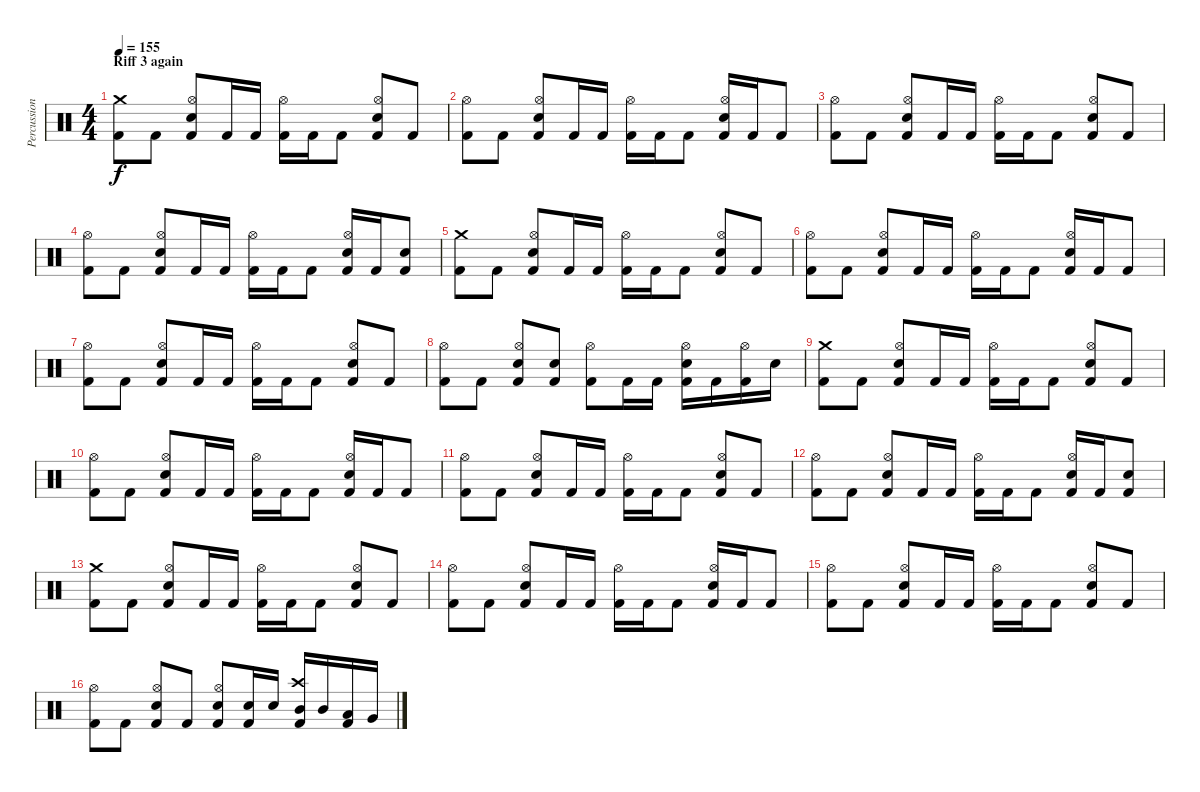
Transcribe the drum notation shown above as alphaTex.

\track ("Percussion" "Percussion") {instrument percussion}
\staff {score}
\articulation defaults
\ts (4 4)
\section ("" "Riff 3 again")
\tempo 155
\clef neutral
\ks c
("Crash medium (hit)" "Kick (hit) 2").8{dy f} "Kick (hit) 2".8 ("Kick (hit) 2" "Hi-Hat (open)" "Snare (hit) 2").8 "Kick (hit) 2".16 "Kick (hit) 2".16 ("Hi-Hat (open)" "Kick (hit) 2").16 "Kick (hit) 2".16 "Kick (hit) 2".8 ("Kick (hit) 2" "Hi-Hat (open)" "Snare (hit) 2").8 "Kick (hit) 2".8 |
("Hi-Hat (open)" "Kick (hit) 2").8 "Kick (hit) 2".8 ("Kick (hit) 2" "Hi-Hat (open)" "Snare (hit) 2").8 "Kick (hit) 2".16 "Kick (hit) 2".16 ("Hi-Hat (open)" "Kick (hit) 2").16 "Kick (hit) 2".16 "Kick (hit) 2".8 ("Kick (hit) 2" "Hi-Hat (open)" "Snare (hit) 2").16 "Kick (hit) 2".16 "Kick (hit) 2".8 |
("Hi-Hat (open)" "Kick (hit) 2").8 "Kick (hit) 2".8 ("Kick (hit) 2" "Hi-Hat (open)" "Snare (hit) 2").8 "Kick (hit) 2".16 "Kick (hit) 2".16 ("Hi-Hat (open)" "Kick (hit) 2").16 "Kick (hit) 2".16 "Kick (hit) 2".8 ("Kick (hit) 2" "Hi-Hat (open)" "Snare (hit) 2").8 "Kick (hit) 2".8 |
("Hi-Hat (open)" "Kick (hit) 2").8 "Kick (hit) 2".8 ("Kick (hit) 2" "Hi-Hat (open)" "Snare (hit) 2").8 "Kick (hit) 2".16 "Kick (hit) 2".16 ("Hi-Hat (open)" "Kick (hit) 2").16 "Kick (hit) 2".16 "Kick (hit) 2".8 ("Kick (hit) 2" "Hi-Hat (open)" "Snare (hit) 2").16 "Kick (hit) 2".16 ("Kick (hit) 2" "Snare (hit) 2").8 |
("Crash medium (hit)" "Kick (hit) 2").8 "Kick (hit) 2".8 ("Kick (hit) 2" "Hi-Hat (open)" "Snare (hit) 2").8 "Kick (hit) 2".16 "Kick (hit) 2".16 ("Hi-Hat (open)" "Kick (hit) 2").16 "Kick (hit) 2".16 "Kick (hit) 2".8 ("Kick (hit) 2" "Hi-Hat (open)" "Snare (hit) 2").8 "Kick (hit) 2".8 |
("Hi-Hat (open)" "Kick (hit) 2").8 "Kick (hit) 2".8 ("Kick (hit) 2" "Hi-Hat (open)" "Snare (hit) 2").8 "Kick (hit) 2".16 "Kick (hit) 2".16 ("Hi-Hat (open)" "Kick (hit) 2").16 "Kick (hit) 2".16 "Kick (hit) 2".8 ("Kick (hit) 2" "Hi-Hat (open)" "Snare (hit) 2").16 "Kick (hit) 2".16 "Kick (hit) 2".8 |
("Hi-Hat (open)" "Kick (hit) 2").8 "Kick (hit) 2".8 ("Kick (hit) 2" "Hi-Hat (open)" "Snare (hit) 2").8 "Kick (hit) 2".16 "Kick (hit) 2".16 ("Hi-Hat (open)" "Kick (hit) 2").16 "Kick (hit) 2".16 "Kick (hit) 2".8 ("Kick (hit) 2" "Hi-Hat (open)" "Snare (hit) 2").8 "Kick (hit) 2".8 |
("Hi-Hat (open)" "Kick (hit) 2").8 "Kick (hit) 2".8 ("Kick (hit) 2" "Hi-Hat (open)" "Snare (hit) 2").8 ("Kick (hit) 2" "Snare (hit) 2").8 ("Hi-Hat (open)" "Kick (hit) 2").8 "Kick (hit) 2".16 "Kick (hit) 2".16 ("Kick (hit) 2" "Hi-Hat (open)" "Snare (hit) 2").16 "Kick (hit) 2".16 ("Hi-Hat (open)" "Kick (hit) 2").16 "Snare (hit) 2".16 |
("Crash medium (hit)" "Kick (hit) 2").8 "Kick (hit) 2".8 ("Kick (hit) 2" "Hi-Hat (open)" "Snare (hit) 2").8 "Kick (hit) 2".16 "Kick (hit) 2".16 ("Hi-Hat (open)" "Kick (hit) 2").16 "Kick (hit) 2".16 "Kick (hit) 2".8 ("Kick (hit) 2" "Hi-Hat (open)" "Snare (hit) 2").8 "Kick (hit) 2".8 |
("Hi-Hat (open)" "Kick (hit) 2").8 "Kick (hit) 2".8 ("Kick (hit) 2" "Hi-Hat (open)" "Snare (hit) 2").8 "Kick (hit) 2".16 "Kick (hit) 2".16 ("Hi-Hat (open)" "Kick (hit) 2").16 "Kick (hit) 2".16 "Kick (hit) 2".8 ("Kick (hit) 2" "Hi-Hat (open)" "Snare (hit) 2").16 "Kick (hit) 2".16 "Kick (hit) 2".8 |
("Hi-Hat (open)" "Kick (hit) 2").8 "Kick (hit) 2".8 ("Kick (hit) 2" "Hi-Hat (open)" "Snare (hit) 2").8 "Kick (hit) 2".16 "Kick (hit) 2".16 ("Hi-Hat (open)" "Kick (hit) 2").16 "Kick (hit) 2".16 "Kick (hit) 2".8 ("Kick (hit) 2" "Hi-Hat (open)" "Snare (hit) 2").8 "Kick (hit) 2".8 |
("Hi-Hat (open)" "Kick (hit) 2").8 "Kick (hit) 2".8 ("Kick (hit) 2" "Hi-Hat (open)" "Snare (hit) 2").8 "Kick (hit) 2".16 "Kick (hit) 2".16 ("Hi-Hat (open)" "Kick (hit) 2").16 "Kick (hit) 2".16 "Kick (hit) 2".8 ("Kick (hit) 2" "Hi-Hat (open)" "Snare (hit) 2").16 "Kick (hit) 2".16 ("Kick (hit) 2" "Snare (hit) 2").8 |
("Crash medium (hit)" "Kick (hit) 2").8 "Kick (hit) 2".8 ("Kick (hit) 2" "Hi-Hat (open)" "Snare (hit) 2").8 "Kick (hit) 2".16 "Kick (hit) 2".16 ("Hi-Hat (open)" "Kick (hit) 2").16 "Kick (hit) 2".16 "Kick (hit) 2".8 ("Kick (hit) 2" "Hi-Hat (open)" "Snare (hit) 2").8 "Kick (hit) 2".8 |
("Hi-Hat (open)" "Kick (hit) 2").8 "Kick (hit) 2".8 ("Kick (hit) 2" "Hi-Hat (open)" "Snare (hit) 2").8 "Kick (hit) 2".16 "Kick (hit) 2".16 ("Hi-Hat (open)" "Kick (hit) 2").16 "Kick (hit) 2".16 "Kick (hit) 2".8 ("Kick (hit) 2" "Hi-Hat (open)" "Snare (hit) 2").16 "Kick (hit) 2".16 "Kick (hit) 2".8 |
("Hi-Hat (open)" "Kick (hit) 2").8 "Kick (hit) 2".8 ("Kick (hit) 2" "Hi-Hat (open)" "Snare (hit) 2").8 "Kick (hit) 2".16 "Kick (hit) 2".16 ("Hi-Hat (open)" "Kick (hit) 2").16 "Kick (hit) 2".16 "Kick (hit) 2".8 ("Kick (hit) 2" "Hi-Hat (open)" "Snare (hit) 2").8 "Kick (hit) 2".8 |
("Hi-Hat (open)" "Kick (hit) 2").8 "Kick (hit) 2".8 ("Kick (hit) 2" "Hi-Hat (open)" "Snare (hit) 2").8 "Kick (hit) 2".8 ("Kick (hit) 2" "Hi-Hat (open)" "Snare (hit) 2").8 ("Kick (hit) 2" "Snare (hit) 2").16 "Snare (hit) 2".16 ("Kick (hit) 2" "Crash high (hit)" "Mid Tom (hit)").16 "Mid Tom (hit)".16 ("Kick (hit) 2" "Low Tom (hit)").16 "Very Low Tom (hit)".16
